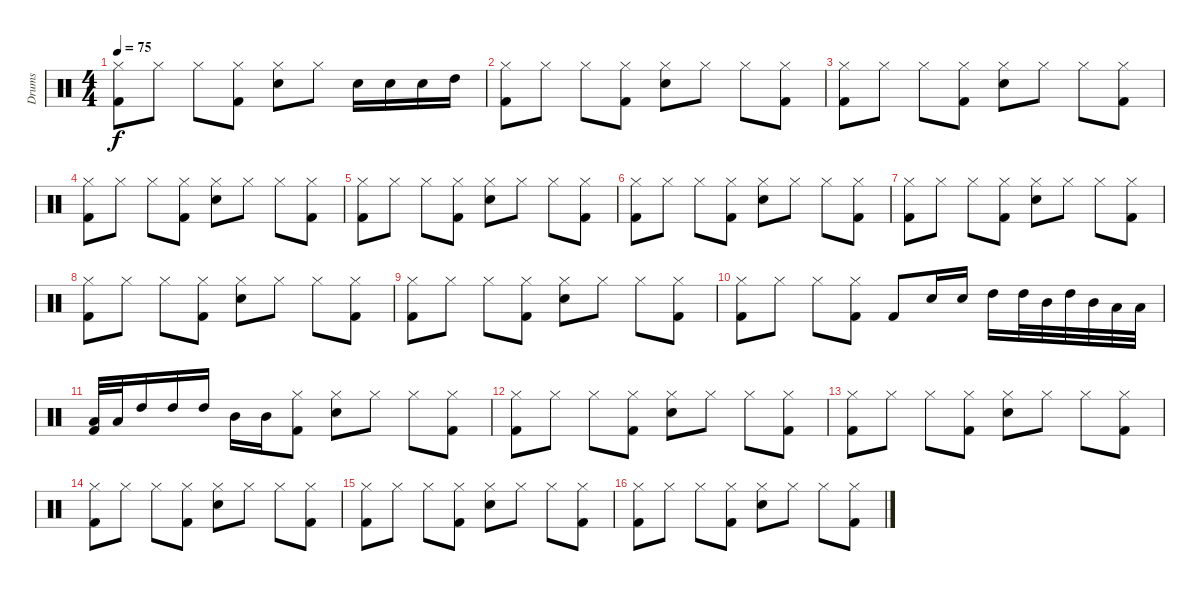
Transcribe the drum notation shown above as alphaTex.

\track ("Drums" "Drums") {instrument percussion}
\staff {score}
\articulation defaults
\ts (4 4)
\tempo 75
\clef neutral
\ks c
("Kick (hit) 2" "Hi-Hat (closed)").8{dy f} "Hi-Hat (closed)".8 "Hi-Hat (closed)".8 ("Kick (hit) 2" "Hi-Hat (closed)").8 ("Snare (hit) 2" "Hi-Hat (closed)").8 "Hi-Hat (closed)".8 "Snare (hit) 2".16 "Snare (hit) 2".16 "Snare (hit) 2".16 "High Tom (hit)".16 |
("Kick (hit) 2" "Hi-Hat (closed)").8 "Hi-Hat (closed)".8 "Hi-Hat (closed)".8 ("Kick (hit) 2" "Hi-Hat (closed)").8 ("Snare (hit) 2" "Hi-Hat (closed)").8 "Hi-Hat (closed)".8 "Hi-Hat (closed)".8 ("Kick (hit) 2" "Hi-Hat (closed)").8 |
("Kick (hit) 2" "Hi-Hat (closed)").8 "Hi-Hat (closed)".8 "Hi-Hat (closed)".8 ("Kick (hit) 2" "Hi-Hat (closed)").8 ("Snare (hit) 2" "Hi-Hat (closed)").8 "Hi-Hat (closed)".8 "Hi-Hat (closed)".8 ("Kick (hit) 2" "Hi-Hat (closed)").8 |
("Kick (hit) 2" "Hi-Hat (closed)").8 "Hi-Hat (closed)".8 "Hi-Hat (closed)".8 ("Kick (hit) 2" "Hi-Hat (closed)").8 ("Snare (hit) 2" "Hi-Hat (closed)").8 "Hi-Hat (closed)".8 "Hi-Hat (closed)".8 ("Kick (hit) 2" "Hi-Hat (closed)").8 |
("Kick (hit) 2" "Hi-Hat (closed)").8 "Hi-Hat (closed)".8 "Hi-Hat (closed)".8 ("Kick (hit) 2" "Hi-Hat (closed)").8 ("Snare (hit) 2" "Hi-Hat (closed)").8 "Hi-Hat (closed)".8 "Hi-Hat (closed)".8 ("Kick (hit) 2" "Hi-Hat (closed)").8 |
("Kick (hit) 2" "Hi-Hat (closed)").8 "Hi-Hat (closed)".8 "Hi-Hat (closed)".8 ("Kick (hit) 2" "Hi-Hat (closed)").8 ("Snare (hit) 2" "Hi-Hat (closed)").8 "Hi-Hat (closed)".8 "Hi-Hat (closed)".8 ("Kick (hit) 2" "Hi-Hat (closed)").8 |
("Kick (hit) 2" "Hi-Hat (closed)").8 "Hi-Hat (closed)".8 "Hi-Hat (closed)".8 ("Kick (hit) 2" "Hi-Hat (closed)").8 ("Snare (hit) 2" "Hi-Hat (closed)").8 "Hi-Hat (closed)".8 "Hi-Hat (closed)".8 ("Kick (hit) 2" "Hi-Hat (closed)").8 |
("Kick (hit) 2" "Hi-Hat (closed)").8 "Hi-Hat (closed)".8 "Hi-Hat (closed)".8 ("Kick (hit) 2" "Hi-Hat (closed)").8 ("Snare (hit) 2" "Hi-Hat (closed)").8 "Hi-Hat (closed)".8 "Hi-Hat (closed)".8 ("Kick (hit) 2" "Hi-Hat (closed)").8 |
("Kick (hit) 2" "Hi-Hat (closed)").8 "Hi-Hat (closed)".8 "Hi-Hat (closed)".8 ("Kick (hit) 2" "Hi-Hat (closed)").8 ("Snare (hit) 2" "Hi-Hat (closed)").8 "Hi-Hat (closed)".8 "Hi-Hat (closed)".8 ("Kick (hit) 2" "Hi-Hat (closed)").8 |
("Kick (hit) 2" "Hi-Hat (closed)").8 "Hi-Hat (closed)".8 "Hi-Hat (closed)".8 ("Kick (hit) 2" "Hi-Hat (closed)").8 "Kick (hit) 2".8 "Snare (hit) 2".16 "Snare (hit) 2".16 "High Tom (hit)".16 "High Tom (hit)".32 "Mid Tom (hit)".32 "High Tom (hit)".32 "Mid Tom (hit)".32 "Low Tom (hit)".32 "Low Tom (hit)".32 |
("Kick (hit) 2" "Low Tom (hit)").32 "Low Tom (hit)".32 "High Tom (hit)".16 "High Tom (hit)".16 "High Tom (hit)".16 "Mid Tom (hit)".16 "Mid Tom (hit)".16 ("Kick (hit) 2" "Hi-Hat (closed)").8 ("Snare (hit) 2" "Hi-Hat (closed)").8 "Hi-Hat (closed)".8 "Hi-Hat (closed)".8 ("Kick (hit) 2" "Hi-Hat (closed)").8 |
("Kick (hit) 2" "Hi-Hat (closed)").8 "Hi-Hat (closed)".8 "Hi-Hat (closed)".8 ("Kick (hit) 2" "Hi-Hat (closed)").8 ("Snare (hit) 2" "Hi-Hat (closed)").8 "Hi-Hat (closed)".8 "Hi-Hat (closed)".8 ("Kick (hit) 2" "Hi-Hat (closed)").8 |
("Kick (hit) 2" "Hi-Hat (closed)").8 "Hi-Hat (closed)".8 "Hi-Hat (closed)".8 ("Kick (hit) 2" "Hi-Hat (closed)").8 ("Snare (hit) 2" "Hi-Hat (closed)").8 "Hi-Hat (closed)".8 "Hi-Hat (closed)".8 ("Kick (hit) 2" "Hi-Hat (closed)").8 |
("Kick (hit) 2" "Hi-Hat (closed)").8 "Hi-Hat (closed)".8 "Hi-Hat (closed)".8 ("Kick (hit) 2" "Hi-Hat (closed)").8 ("Snare (hit) 2" "Hi-Hat (closed)").8 "Hi-Hat (closed)".8 "Hi-Hat (closed)".8 ("Kick (hit) 2" "Hi-Hat (closed)").8 |
("Kick (hit) 2" "Hi-Hat (closed)").8 "Hi-Hat (closed)".8 "Hi-Hat (closed)".8 ("Kick (hit) 2" "Hi-Hat (closed)").8 ("Snare (hit) 2" "Hi-Hat (closed)").8 "Hi-Hat (closed)".8 "Hi-Hat (closed)".8 ("Kick (hit) 2" "Hi-Hat (closed)").8 |
("Kick (hit) 2" "Hi-Hat (closed)").8 "Hi-Hat (closed)".8 "Hi-Hat (closed)".8 ("Kick (hit) 2" "Hi-Hat (closed)").8 ("Snare (hit) 2" "Hi-Hat (closed)").8 "Hi-Hat (closed)".8 "Hi-Hat (closed)".8 ("Kick (hit) 2" "Hi-Hat (closed)").8
